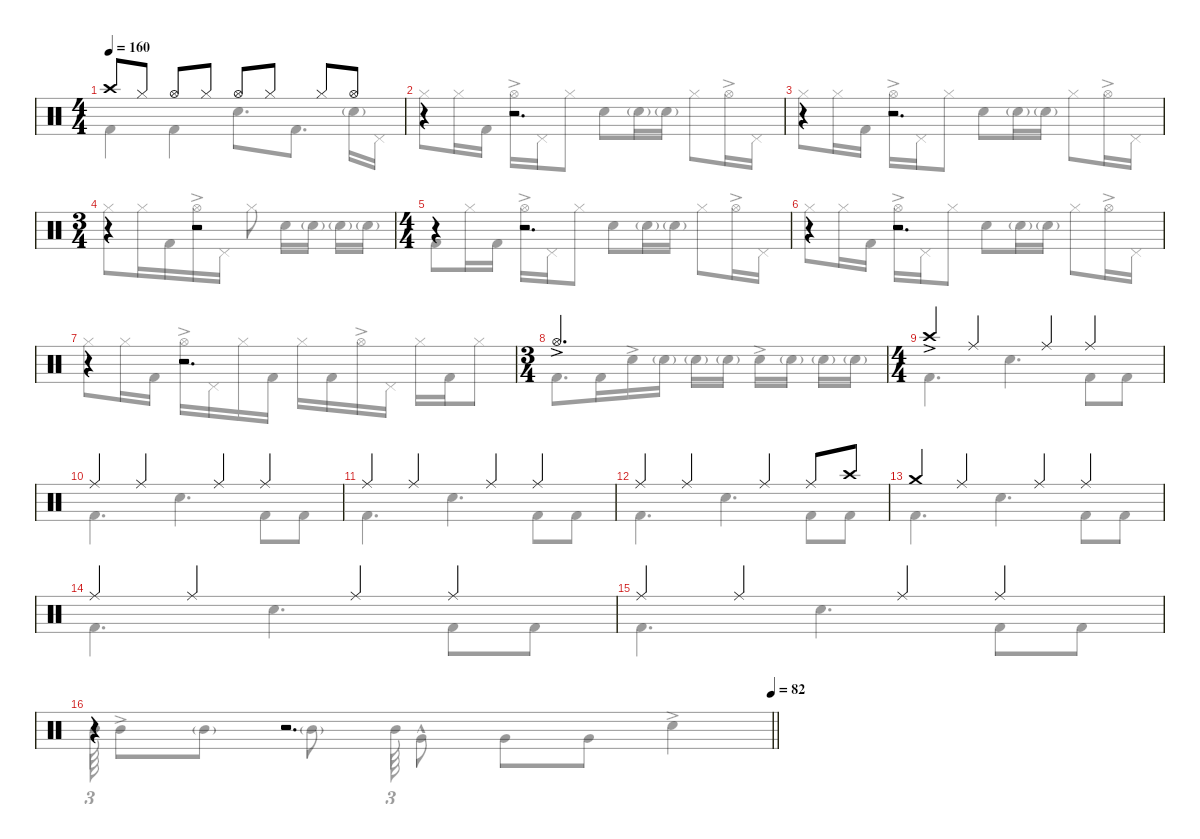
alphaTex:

\defaultSystemsLayout 4
\hideDynamics
\bracketExtendMode nobrackets
\singleTrackTrackNamePolicy hidden
\multiTrackTrackNamePolicy hidden
\firstSystemTrackNameMode fullname
\firstSystemTrackNameOrientation horizontal
\otherSystemsTrackNameOrientation horizontal
\track ("Drums" "drm.") {instrument percussion}
\staff {score}
\articulation defaults
\voice
\ts (4 4)
\beaming (8 2 2 2 2)
\tempo 160
\clef neutral
\ks c "Crash high (hit)".8{dy f beam Up} "Hi-Hat (closed)".8{beam Up} "Hi-Hat (open)".8{beam Up} "Hi-Hat (closed)".8{beam Up} "Hi-Hat (open)".8{beam Up} "Hi-Hat (closed)".8{beam Up} "Hi-Hat (closed)".8{beam Up} "Hi-Hat (open)".8{beam Up}
|
r.4{beam Up} r.2{d beam Up} |
r.4{beam Up} r.2{d beam Up} |
\ts (3 4)
\beaming (8 3 1 1 1)
r.4{beam Up} r.2{beam Up} |
\ts (4 4)
\beaming (8 2 2 2 2)
r.4{beam Up} r.2{d beam Up} |
r.4{beam Up} r.2{d beam Up} |
r.4{beam Up} r.2{d beam Up} |
\ts (3 4)
\beaming (8 3 1 1 1)
"Hi-Hat (open)"{ac}.2{d dy mf beam Up} |
\ts (4 4)
\beaming (8 2 2 2 2)
"Crash high (hit)"{ac}.4{beam Up} "Ride (middle)".4{dy f beam Up} "Ride (middle)".4{beam Up} "Ride (middle)".4{beam Up} |
"Ride (middle)".4{beam Up} "Ride (middle)".4{beam Up} "Ride (middle)".4{beam Up} "Ride (middle)".4{beam Up} |
"Ride (middle)".4{beam Up} "Ride (middle)".4{beam Up} "Ride (middle)".4{beam Up} "Ride (middle)".4{beam Up} |
"Ride (middle)".4{beam Up} "Ride (middle)".4{beam Up} "Ride (middle)".4{beam Up} "Ride (middle)".8{beam Up} "Crash high (hit)".8{beam Up} |
"Crash medium (hit)".4{beam Up} "Ride (middle)".4{beam Up} "Ride (middle)".4{beam Up} "Ride (middle)".4{beam Up} |
"Ride (middle)".4{beam Up} "Ride (middle)".4{beam Up} "Ride (middle)".4{beam Up} "Ride (middle)".4{beam Up} |
"Ride (middle)".4{beam Up} "Ride (middle)".4{beam Up} "Ride (middle)".4{beam Up} "Ride (middle)".4{beam Up} |
\tempo (82 1)
\barLineRight lightlight
r.4{beam Up} r.2{d beam Up}
\voice
\clef neutral
\ottava regular
\simile none
\ks c "Kick (hit) 2".4{dy f beam Down} "Kick (hit) 2".4{beam Down} "Snare (hit) 2".8{d beam Down} "Kick (hit) 2".8{d beam Down} "Snare (hit) 2"{g}.16{dy mf beam Down} "Pedal Hi-Hat (hit)".16{dy mp beam Down}
|
"Hi-Hat (closed)".8{dy f beam Down} "Hi-Hat (closed)".16{beam Down} "Kick (hit) 2".16{beam Down} "Hi-Hat (open)"{ac}.16{dy mf beam Down} "Pedal Hi-Hat (hit)".16{dy f beam Down} "Hi-Hat (closed)".8{beam Down} "Snare (hit) 2".8{beam Down} "Snare (hit) 2"{g}.16{dy mf beam Down} "Snare (hit) 2"{g}.16{beam Down} "Hi-Hat (closed)".8{dy f beam Down} "Hi-Hat (open)"{ac}.16{dy mf beam Down} "Pedal Hi-Hat (hit)".16{dy f beam Down} |
"Hi-Hat (closed)".8{beam Down} "Hi-Hat (closed)".16{beam Down} "Kick (hit) 2".16{beam Down} "Hi-Hat (open)"{ac}.16{dy mf beam Down} "Pedal Hi-Hat (hit)".16{dy f beam Down} "Hi-Hat (closed)".8{beam Down} "Snare (hit) 2".8{beam Down} "Snare (hit) 2"{g}.16{dy mf beam Down} "Snare (hit) 2"{g}.16{beam Down} "Hi-Hat (closed)".8{dy f beam Down} "Hi-Hat (open)"{ac}.16{dy mf beam Down} "Pedal Hi-Hat (hit)".16{dy f beam Down} |
"Hi-Hat (closed)".8{beam Down} "Hi-Hat (closed)".16{beam Down} "Kick (hit) 2".16{beam Down} "Hi-Hat (open)"{ac}.16{dy mf beam Down} "Pedal Hi-Hat (hit)".16{dy f beam Down} "Hi-Hat (closed)".8{beam Down} "Snare (hit) 2".16{beam Down} "Snare (hit) 2"{g}.16{dy mf beam Down} "Snare (hit) 2"{g}.16{beam Down} "Snare (hit) 2"{g}.16{beam Down} |
"Kick (hit) 2".8{dy f beam Down} "Hi-Hat (closed)".16{beam Down} "Kick (hit) 2".16{beam Down} "Hi-Hat (open)"{ac}.16{dy mf beam Down} "Pedal Hi-Hat (hit)".16{dy f beam Down} "Hi-Hat (closed)".8{beam Down} "Snare (hit) 2".8{beam Down} "Snare (hit) 2"{g}.16{dy mf beam Down} "Snare (hit) 2"{g}.16{beam Down} "Hi-Hat (closed)".8{dy f beam Down} "Hi-Hat (open)"{ac}.16{dy mf beam Down} "Pedal Hi-Hat (hit)".16{dy f beam Down} |
"Hi-Hat (closed)".8{beam Down} "Hi-Hat (closed)".16{beam Down} "Kick (hit) 2".16{beam Down} "Hi-Hat (open)"{ac}.16{dy mf beam Down} "Pedal Hi-Hat (hit)".16{dy f beam Down} "Hi-Hat (closed)".8{beam Down} "Snare (hit) 2".8{beam Down} "Snare (hit) 2"{g}.16{dy mf beam Down} "Snare (hit) 2"{g}.16{beam Down} "Hi-Hat (closed)".8{dy f beam Down} "Hi-Hat (open)"{ac}.16{dy mf beam Down} "Pedal Hi-Hat (hit)".16{dy f beam Down} |
"Hi-Hat (closed)".8{beam Down} "Hi-Hat (closed)".16{beam Down} "Kick (hit) 2".16{beam Down} "Hi-Hat (open)"{ac}.16{dy mf beam Down} "Pedal Hi-Hat (hit)".16{dy f beam Down} "Hi-Hat (closed)".16{beam Down} "Kick (hit) 2".16{beam Down} "Hi-Hat (closed)".16{beam Down} "Kick (hit) 2".16{beam Down} "Hi-Hat (open)"{ac}.16{dy mf beam Down} "Pedal Hi-Hat (hit)".16{dy f beam Down} "Hi-Hat (closed)".16{beam Down} "Kick (hit) 2".16{beam Down} "Hi-Hat (closed)".8{beam Down} |
"Kick (hit) 2".8{d beam Down} "Kick (hit) 2".16{beam Down} "Snare (hit) 2"{ac}.16{dy mf beam Down} "Snare (hit) 2"{g}.16{dy f beam Down} "Snare (hit) 2"{g}.16{beam Down} "Snare (hit) 2"{g}.16{beam Down} "Snare (hit) 2"{ac}.16{dy mf beam Down} "Snare (hit) 2"{g}.16{dy f beam Down} "Snare (hit) 2"{g}.16{beam Down} "Snare (hit) 2"{g}.16{beam Down} |
"Kick (hit) 2".4{d beam Down} "Snare (hit) 2".4{d beam Down} "Kick (hit) 2".8{beam Down} "Kick (hit) 2".8{beam Down} |
"Kick (hit) 2".4{d beam Down} "Snare (hit) 2".4{d beam Down} "Kick (hit) 2".8{beam Down} "Kick (hit) 2".8{beam Down} |
"Kick (hit) 2".4{d beam Down} "Snare (hit) 2".4{d beam Down} "Kick (hit) 2".8{beam Down} "Kick (hit) 2".8{beam Down} |
"Kick (hit) 2".4{d beam Down} "Snare (hit) 2".4{d beam Down} "Kick (hit) 2".8{beam Down} "Kick (hit) 2".8{beam Down} |
"Kick (hit) 2".4{d beam Down} "Snare (hit) 2".4{d beam Down} "Kick (hit) 2".8{beam Down} "Kick (hit) 2".8{beam Down} |
"Kick (hit) 2".4{d beam Down} "Snare (hit) 2".4{d beam Down} "Kick (hit) 2".8{beam Down} "Kick (hit) 2".8{beam Down} |
"Kick (hit) 2".4{d beam Down} "Snare (hit) 2".4{d beam Down} "Kick (hit) 2".8{beam Down} "Kick (hit) 2".8{beam Down} |
\barLineRight lightlight "Mid Tom (hit)".64{tu (3 2) beam Down} "Mid Tom (hit)"{ac}.8{dy mf beam Down} "Mid Tom (hit)"{g}.8{dy ff beam Down} "Mid Tom (hit)"{g}.8{beam Down} "Mid Tom (hit)".64{tu (3 2) dy f beam Down} "Very Low Tom (hit)"{hac}.8{dy mp beam Down} "Very Low Tom (hit)".8{dy f beam Down} "Very Low Tom (hit)".8{beam Down} "Snare (hit) 2"{ac}.4{dy mf beam Down}
